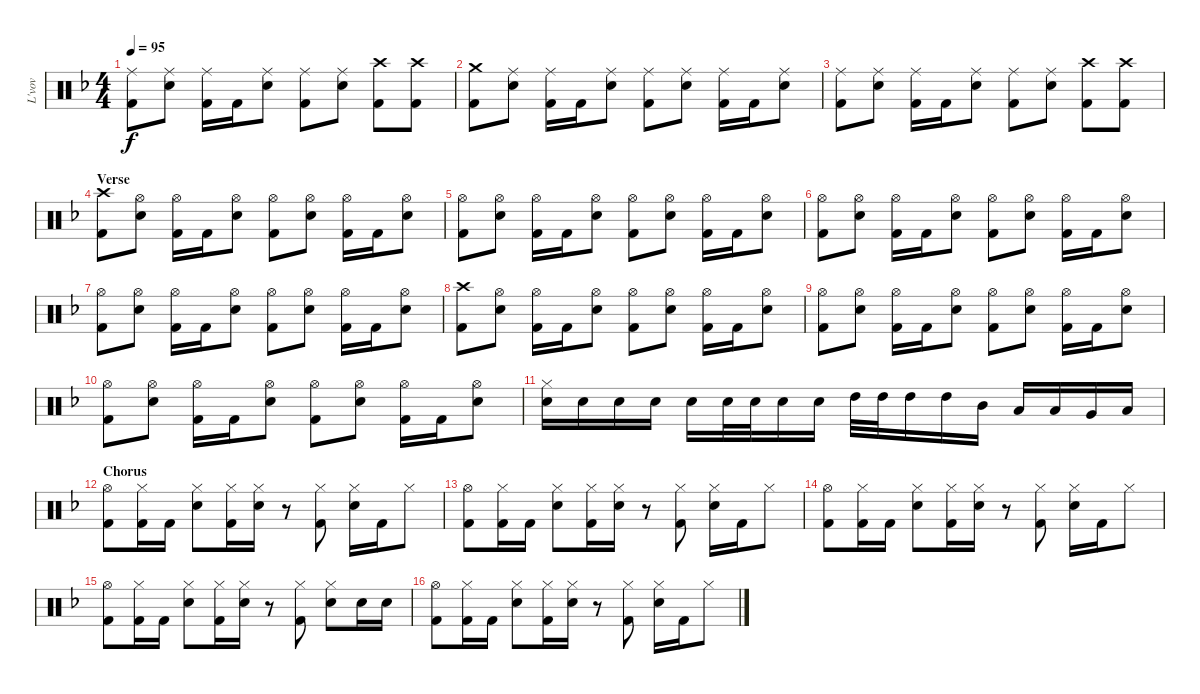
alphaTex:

\track ("L'vov" "L'vov") {instrument percussion}
\staff {score}
\articulation defaults
\ts (4 4)
\tempo 95
\clef neutral
\ks f
("Kick (hit) 2" "Ride (middle)").8{dy f} ("Snare (hit) 2" "Ride (middle)").8 ("Kick (hit) 2" "Ride (middle)").16 "Kick (hit) 2".16 ("Snare (hit) 2" "Ride (middle)").8 ("Kick (hit) 2" "Ride (middle)").8 ("Snare (hit) 2" "Ride (middle)").8 ("Kick (hit) 2" "Crash high (hit)").8 ("Kick (hit) 2" "Crash high (hit)").8 |
("Kick (hit) 2" "Crash medium (hit)").8 ("Snare (hit) 2" "Ride (middle)").8 ("Kick (hit) 2" "Ride (middle)").16 "Kick (hit) 2".16 ("Snare (hit) 2" "Ride (middle)").8 ("Kick (hit) 2" "Ride (middle)").8 ("Snare (hit) 2" "Ride (middle)").8 ("Kick (hit) 2" "Ride (middle)").16 "Kick (hit) 2".16 ("Snare (hit) 2" "Ride (middle)").8 |
("Kick (hit) 2" "Ride (middle)").8 ("Snare (hit) 2" "Ride (middle)").8 ("Kick (hit) 2" "Ride (middle)").16 "Kick (hit) 2".16 ("Snare (hit) 2" "Ride (middle)").8 ("Kick (hit) 2" "Ride (middle)").8 ("Snare (hit) 2" "Ride (middle)").8 ("Kick (hit) 2" "Crash high (hit)").8 ("Kick (hit) 2" "Crash high (hit)").8 |
\section ("" "Verse")
("Kick (hit) 2" "Crash high (hit)").8 ("Snare (hit) 2" "Hi-Hat (open)").8 ("Kick (hit) 2" "Hi-Hat (open)").16 "Kick (hit) 2".16 ("Snare (hit) 2" "Hi-Hat (open)").8 ("Kick (hit) 2" "Hi-Hat (open)").8 ("Snare (hit) 2" "Hi-Hat (open)").8 ("Kick (hit) 2" "Hi-Hat (open)").16 "Kick (hit) 2".16 ("Snare (hit) 2" "Hi-Hat (open)").8 |
("Kick (hit) 2" "Hi-Hat (open)").8 ("Snare (hit) 2" "Hi-Hat (open)").8 ("Kick (hit) 2" "Hi-Hat (open)").16 "Kick (hit) 2".16 ("Snare (hit) 2" "Hi-Hat (open)").8 ("Kick (hit) 2" "Hi-Hat (open)").8 ("Snare (hit) 2" "Hi-Hat (open)").8 ("Kick (hit) 2" "Hi-Hat (open)").16 "Kick (hit) 2".16 ("Snare (hit) 2" "Hi-Hat (open)").8 |
("Kick (hit) 2" "Hi-Hat (open)").8 ("Snare (hit) 2" "Hi-Hat (open)").8 ("Kick (hit) 2" "Hi-Hat (open)").16 "Kick (hit) 2".16 ("Snare (hit) 2" "Hi-Hat (open)").8 ("Kick (hit) 2" "Hi-Hat (open)").8 ("Snare (hit) 2" "Hi-Hat (open)").8 ("Kick (hit) 2" "Hi-Hat (open)").16 "Kick (hit) 2".16 ("Snare (hit) 2" "Hi-Hat (open)").8 |
("Kick (hit) 2" "Hi-Hat (open)").8 ("Snare (hit) 2" "Hi-Hat (open)").8 ("Kick (hit) 2" "Hi-Hat (open)").16 "Kick (hit) 2".16 ("Snare (hit) 2" "Hi-Hat (open)").8 ("Kick (hit) 2" "Hi-Hat (open)").8 ("Snare (hit) 2" "Hi-Hat (open)").8 ("Kick (hit) 2" "Hi-Hat (open)").16 "Kick (hit) 2".16 ("Snare (hit) 2" "Hi-Hat (open)").8 |
("Kick (hit) 2" "Crash high (hit)").8 ("Snare (hit) 2" "Hi-Hat (open)").8 ("Kick (hit) 2" "Hi-Hat (open)").16 "Kick (hit) 2".16 ("Snare (hit) 2" "Hi-Hat (open)").8 ("Kick (hit) 2" "Hi-Hat (open)").8 ("Snare (hit) 2" "Hi-Hat (open)").8 ("Kick (hit) 2" "Hi-Hat (open)").16 "Kick (hit) 2".16 ("Snare (hit) 2" "Hi-Hat (open)").8 |
("Kick (hit) 2" "Hi-Hat (open)").8 ("Snare (hit) 2" "Hi-Hat (open)").8 ("Kick (hit) 2" "Hi-Hat (open)").16 "Kick (hit) 2".16 ("Snare (hit) 2" "Hi-Hat (open)").8 ("Kick (hit) 2" "Hi-Hat (open)").8 ("Snare (hit) 2" "Hi-Hat (open)").8 ("Kick (hit) 2" "Hi-Hat (open)").16 "Kick (hit) 2".16 ("Snare (hit) 2" "Hi-Hat (open)").8 |
("Kick (hit) 2" "Hi-Hat (open)").8 ("Snare (hit) 2" "Hi-Hat (open)").8 ("Kick (hit) 2" "Hi-Hat (open)").16 "Kick (hit) 2".16 ("Snare (hit) 2" "Hi-Hat (open)").8 ("Kick (hit) 2" "Hi-Hat (open)").8 ("Snare (hit) 2" "Hi-Hat (open)").8 ("Kick (hit) 2" "Hi-Hat (open)").16 "Kick (hit) 2".16 ("Snare (hit) 2" "Hi-Hat (open)").8 |
("Snare (hit) 2" "Hi-Hat (closed)").16 "Snare (hit) 2".16 "Snare (hit) 2".16 "Snare (hit) 2".16 "Snare (hit) 2".16 "Electric Snare (hit)".32 "Snare (hit) 2".32 "Snare (hit) 2".16 "Snare (hit) 2".16 "High Tom (hit)".32 "High Tom (hit)".32 "High Tom (hit)".16 "High Tom (hit)".16 "Mid Tom (hit)".16 "Low Tom (hit)".16 "Low Tom (hit)".16 "Very Low Tom (hit)".16 "Low Floor Tom (hit)".16 |
\section ("" "Chorus")
("Kick (hit) 2" "Hi-Hat (open)").8 ("Kick (hit) 2" "Hi-Hat (closed)").16 "Kick (hit) 2".16 ("Snare (hit) 2" "Hi-Hat (closed)").8 ("Kick (hit) 2" "Hi-Hat (closed)").16 ("Snare (hit) 2" "Hi-Hat (closed)").16 r.8 ("Kick (hit) 2" "Hi-Hat (closed)").8 ("Snare (hit) 2" "Hi-Hat (closed)").16 "Kick (hit) 2".16 "Hi-Hat (closed)".8 |
("Kick (hit) 2" "Hi-Hat (open)").8 ("Kick (hit) 2" "Hi-Hat (closed)").16 "Kick (hit) 2".16 ("Snare (hit) 2" "Hi-Hat (closed)").8 ("Kick (hit) 2" "Hi-Hat (closed)").16 ("Snare (hit) 2" "Hi-Hat (closed)").16 r.8 ("Kick (hit) 2" "Hi-Hat (closed)").8 ("Snare (hit) 2" "Hi-Hat (closed)").16 "Kick (hit) 2".16 "Hi-Hat (closed)".8 |
("Kick (hit) 2" "Hi-Hat (open)").8 ("Kick (hit) 2" "Hi-Hat (closed)").16 "Kick (hit) 2".16 ("Snare (hit) 2" "Hi-Hat (closed)").8 ("Kick (hit) 2" "Hi-Hat (closed)").16 ("Snare (hit) 2" "Hi-Hat (closed)").16 r.8 ("Kick (hit) 2" "Hi-Hat (closed)").8 ("Snare (hit) 2" "Hi-Hat (closed)").16 "Kick (hit) 2".16 "Hi-Hat (closed)".8 |
("Kick (hit) 2" "Hi-Hat (open)").8 ("Kick (hit) 2" "Hi-Hat (closed)").16 "Kick (hit) 2".16 ("Snare (hit) 2" "Hi-Hat (closed)").8 ("Kick (hit) 2" "Hi-Hat (closed)").16 ("Snare (hit) 2" "Hi-Hat (closed)").16 r.8 ("Kick (hit) 2" "Hi-Hat (closed)").8 ("Snare (hit) 2" "Hi-Hat (closed)").8 "Snare (hit) 2".16 "Snare (hit) 2".16 |
("Kick (hit) 2" "Hi-Hat (open)").8 ("Kick (hit) 2" "Hi-Hat (closed)").16 "Kick (hit) 2".16 ("Snare (hit) 2" "Hi-Hat (closed)").8 ("Kick (hit) 2" "Hi-Hat (closed)").16 ("Snare (hit) 2" "Hi-Hat (closed)").16 r.8 ("Kick (hit) 2" "Hi-Hat (closed)").8 ("Snare (hit) 2" "Hi-Hat (closed)").16 "Kick (hit) 2".16 "Hi-Hat (closed)".8
